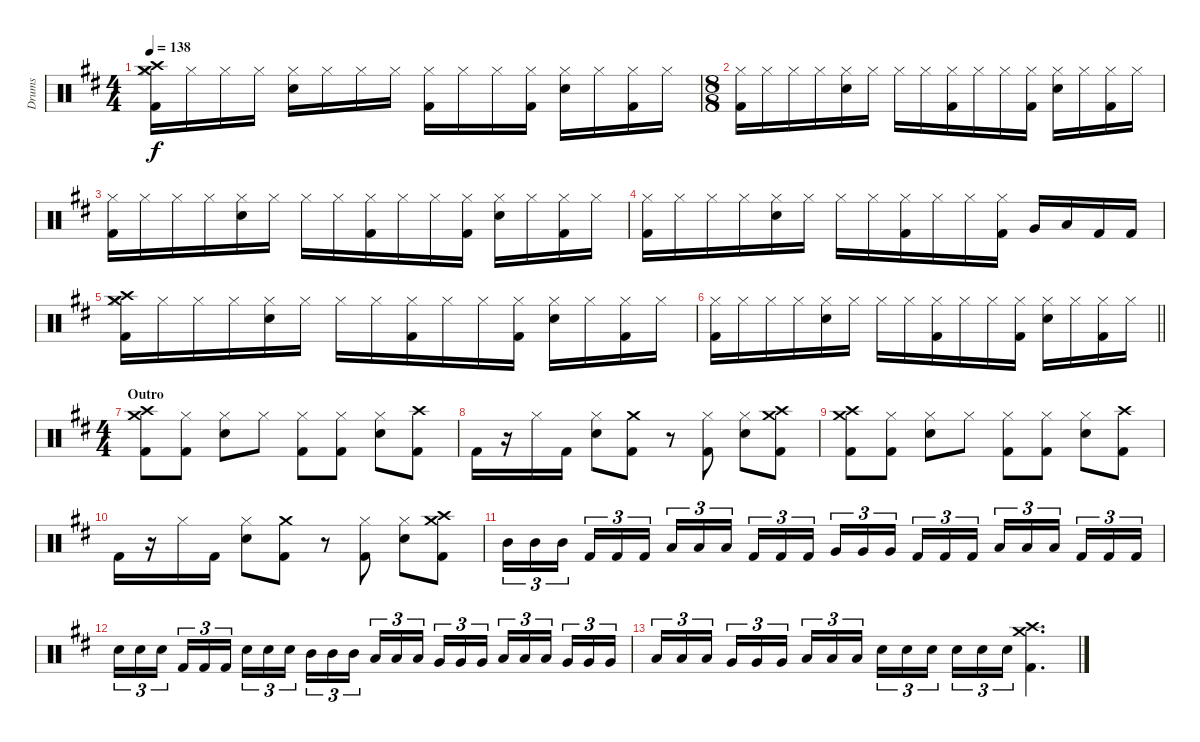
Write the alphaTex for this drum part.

\track ("Drums" "Drums") {instrument percussion}
\staff {score}
\articulation defaults
\ts (4 4)
\tempo 138
\clef neutral
\ks d
("Crash high (hit)" "Crash medium (hit)" "Hi-Hat (closed)" "Kick (hit) 2").16{dy f} "Hi-Hat (closed)".16 "Hi-Hat (closed)".16 "Hi-Hat (closed)".16 ("Hi-Hat (closed)" "Electric Snare (hit)").16 "Hi-Hat (closed)".16 "Hi-Hat (closed)".16 "Hi-Hat (closed)".16 ("Hi-Hat (closed)" "Kick (hit) 2").16 "Hi-Hat (closed)".16 "Hi-Hat (closed)".16 ("Hi-Hat (closed)" "Kick (hit) 2").16 ("Hi-Hat (closed)" "Electric Snare (hit)").16 "Hi-Hat (closed)".16 ("Hi-Hat (closed)" "Kick (hit) 2").16 "Hi-Hat (closed)".16 |
\ts (8 8)
("Hi-Hat (closed)" "Kick (hit) 2").16 "Hi-Hat (closed)".16 "Hi-Hat (closed)".16 "Hi-Hat (closed)".16 ("Hi-Hat (closed)" "Electric Snare (hit)").16 "Hi-Hat (closed)".16 "Hi-Hat (closed)".16 "Hi-Hat (closed)".16 ("Hi-Hat (closed)" "Kick (hit) 2").16 "Hi-Hat (closed)".16 "Hi-Hat (closed)".16 ("Hi-Hat (closed)" "Kick (hit) 2").16 ("Hi-Hat (closed)" "Electric Snare (hit)").16 "Hi-Hat (closed)".16 ("Hi-Hat (closed)" "Kick (hit) 2").16 "Hi-Hat (closed)".16 |
("Hi-Hat (closed)" "Kick (hit) 2").16 "Hi-Hat (closed)".16 "Hi-Hat (closed)".16 "Hi-Hat (closed)".16 ("Hi-Hat (closed)" "Electric Snare (hit)").16 "Hi-Hat (closed)".16 "Hi-Hat (closed)".16 "Hi-Hat (closed)".16 ("Hi-Hat (closed)" "Kick (hit) 2").16 "Hi-Hat (closed)".16 "Hi-Hat (closed)".16 ("Hi-Hat (closed)" "Kick (hit) 2").16 ("Hi-Hat (closed)" "Electric Snare (hit)").16 "Hi-Hat (closed)".16 ("Hi-Hat (closed)" "Kick (hit) 2").16 "Hi-Hat (closed)".16 |
("Hi-Hat (closed)" "Kick (hit) 2").16 "Hi-Hat (closed)".16 "Hi-Hat (closed)".16 "Hi-Hat (closed)".16 ("Hi-Hat (closed)" "Electric Snare (hit)").16 "Hi-Hat (closed)".16 "Hi-Hat (closed)".16 "Hi-Hat (closed)".16 ("Hi-Hat (closed)" "Kick (hit) 2").16 "Hi-Hat (closed)".16 "Hi-Hat (closed)".16 ("Hi-Hat (closed)" "Kick (hit) 2").16 "Very Low Tom (hit)".16 "Low Floor Tom (hit)".16 "Kick (hit) 2".16 "Kick (hit) 2".16 |
("Crash high (hit)" "Crash medium (hit)" "Hi-Hat (closed)" "Kick (hit) 2").16 "Hi-Hat (closed)".16 "Hi-Hat (closed)".16 "Hi-Hat (closed)".16 ("Hi-Hat (closed)" "Electric Snare (hit)").16 "Hi-Hat (closed)".16 "Hi-Hat (closed)".16 "Hi-Hat (closed)".16 ("Hi-Hat (closed)" "Kick (hit) 2").16 "Hi-Hat (closed)".16 "Hi-Hat (closed)".16 ("Hi-Hat (closed)" "Kick (hit) 2").16 ("Hi-Hat (closed)" "Electric Snare (hit)").16 "Hi-Hat (closed)".16 ("Hi-Hat (closed)" "Kick (hit) 2").16 "Hi-Hat (closed)".16 |
\barLineRight lightlight
("Hi-Hat (closed)" "Kick (hit) 2").16 "Hi-Hat (closed)".16 "Hi-Hat (closed)".16 "Hi-Hat (closed)".16 ("Hi-Hat (closed)" "Electric Snare (hit)").16 "Hi-Hat (closed)".16 "Hi-Hat (closed)".16 "Hi-Hat (closed)".16 ("Hi-Hat (closed)" "Kick (hit) 2").16 "Hi-Hat (closed)".16 "Hi-Hat (closed)".16 ("Hi-Hat (closed)" "Kick (hit) 2").16 ("Hi-Hat (closed)" "Electric Snare (hit)").16 "Hi-Hat (closed)".16 ("Hi-Hat (closed)" "Kick (hit) 2").16 "Hi-Hat (closed)".16 |
\ts (4 4)
\section ("" "Outro")
("Crash high (hit)" "Crash medium (hit)" "Kick (hit) 2").8 ("Hi-Hat (closed)" "Kick (hit) 2").8 ("Hi-Hat (closed)" "Electric Snare (hit)").8 "Hi-Hat (closed)".8 ("Hi-Hat (closed)" "Kick (hit) 2").8 ("Hi-Hat (closed)" "Kick (hit) 2").8 ("Hi-Hat (closed)" "Electric Snare (hit)").8 ("Crash high (hit)" "Kick (hit) 2").8 |
"Kick (hit) 2".16 r.16 "Hi-Hat (closed)".16 "Kick (hit) 2".16 ("Hi-Hat (closed)" "Electric Snare (hit)").8 ("Crash medium (hit)" "Kick (hit) 2").8 r.8 ("Hi-Hat (closed)" "Kick (hit) 2").8 ("Hi-Hat (closed)" "Electric Snare (hit)").8 ("Crash medium (hit)" "Crash high (hit)" "Kick (hit) 2").8 |
("Crash high (hit)" "Crash medium (hit)" "Kick (hit) 2").8 ("Hi-Hat (closed)" "Kick (hit) 2").8 ("Hi-Hat (closed)" "Electric Snare (hit)").8 "Hi-Hat (closed)".8 ("Hi-Hat (closed)" "Kick (hit) 2").8 ("Hi-Hat (closed)" "Kick (hit) 2").8 ("Hi-Hat (closed)" "Electric Snare (hit)").8 ("Crash high (hit)" "Kick (hit) 2").8 |
"Kick (hit) 2".16 r.16 "Hi-Hat (closed)".16 "Kick (hit) 2".16 ("Hi-Hat (closed)" "Electric Snare (hit)").8 ("Crash medium (hit)" "Kick (hit) 2").8 r.8 ("Hi-Hat (closed)" "Kick (hit) 2").8 ("Hi-Hat (closed)" "Electric Snare (hit)").8 ("Crash medium (hit)" "Crash high (hit)" "Kick (hit) 2").8 |
"Mid Tom (hit)".16{tu (3 2)} "Mid Tom (hit)".16{tu (3 2)} "Mid Tom (hit)".16{tu (3 2) beam splitsecondary} "Kick (hit) 2".16{tu (3 2)} "Kick (hit) 2".16{tu (3 2)} "Kick (hit) 2".16{tu (3 2)} "Low Tom (hit)".16{tu (3 2)} "Low Tom (hit)".16{tu (3 2)} "Low Tom (hit)".16{tu (3 2) beam splitsecondary} "Kick (hit) 2".16{tu (3 2)} "Kick (hit) 2".16{tu (3 2)} "Kick (hit) 2".16{tu (3 2)} "Very Low Tom (hit)".16{tu (3 2)} "Very Low Tom (hit)".16{tu (3 2)} "Very Low Tom (hit)".16{tu (3 2) beam splitsecondary} "Kick (hit) 2".16{tu (3 2)} "Kick (hit) 2".16{tu (3 2)} "Kick (hit) 2".16{tu (3 2)} "Low Floor Tom (hit)".16{tu (3 2)} "Low Floor Tom (hit)".16{tu (3 2)} "Low Floor Tom (hit)".16{tu (3 2) beam splitsecondary} "Kick (hit) 2".16{tu (3 2)} "Kick (hit) 2".16{tu (3 2)} "Kick (hit) 2".16{tu (3 2)} |
"Electric Snare (hit)".16{tu (3 2)} "Electric Snare (hit)".16{tu (3 2)} "Electric Snare (hit)".16{tu (3 2) beam splitsecondary} "Kick (hit) 2".16{tu (3 2)} "Kick (hit) 2".16{tu (3 2)} "Kick (hit) 2".16{tu (3 2)} "Electric Snare (hit)".16{tu (3 2)} "Electric Snare (hit)".16{tu (3 2)} "Electric Snare (hit)".16{tu (3 2) beam splitsecondary} "Mid Tom (hit)".16{tu (3 2)} "Mid Tom (hit)".16{tu (3 2)} "Mid Tom (hit)".16{tu (3 2)} "Low Tom (hit)".16{tu (3 2)} "Low Tom (hit)".16{tu (3 2)} "Low Tom (hit)".16{tu (3 2) beam splitsecondary} "Very Low Tom (hit)".16{tu (3 2)} "Very Low Tom (hit)".16{tu (3 2)} "Very Low Tom (hit)".16{tu (3 2)} "Low Tom (hit)".16{tu (3 2)} "Low Tom (hit)".16{tu (3 2)} "Low Tom (hit)".16{tu (3 2) beam splitsecondary} "Very Low Tom (hit)".16{tu (3 2)} "Very Low Tom (hit)".16{tu (3 2)} "Very Low Tom (hit)".16{tu (3 2)} |
"Low Floor Tom (hit)".16{tu (3 2)} "Low Floor Tom (hit)".16{tu (3 2)} "Low Floor Tom (hit)".16{tu (3 2) beam splitsecondary} "Very Low Tom (hit)".16{tu (3 2)} "Very Low Tom (hit)".16{tu (3 2)} "Very Low Tom (hit)".16{tu (3 2)} "Low Floor Tom (hit)".16{tu (3 2)} "Low Floor Tom (hit)".16{tu (3 2)} "Low Floor Tom (hit)".16{tu (3 2) beam splitsecondary} "Electric Snare (hit)".16{tu (3 2)} "Electric Snare (hit)".16{tu (3 2)} "Electric Snare (hit)".16{tu (3 2)} "Electric Snare (hit)".16{tu (3 2)} "Electric Snare (hit)".16{tu (3 2)} "Electric Snare (hit)".16{tu (3 2)} ("Crash high (hit)" "Crash medium (hit)" "Kick (hit) 2").4{d}
